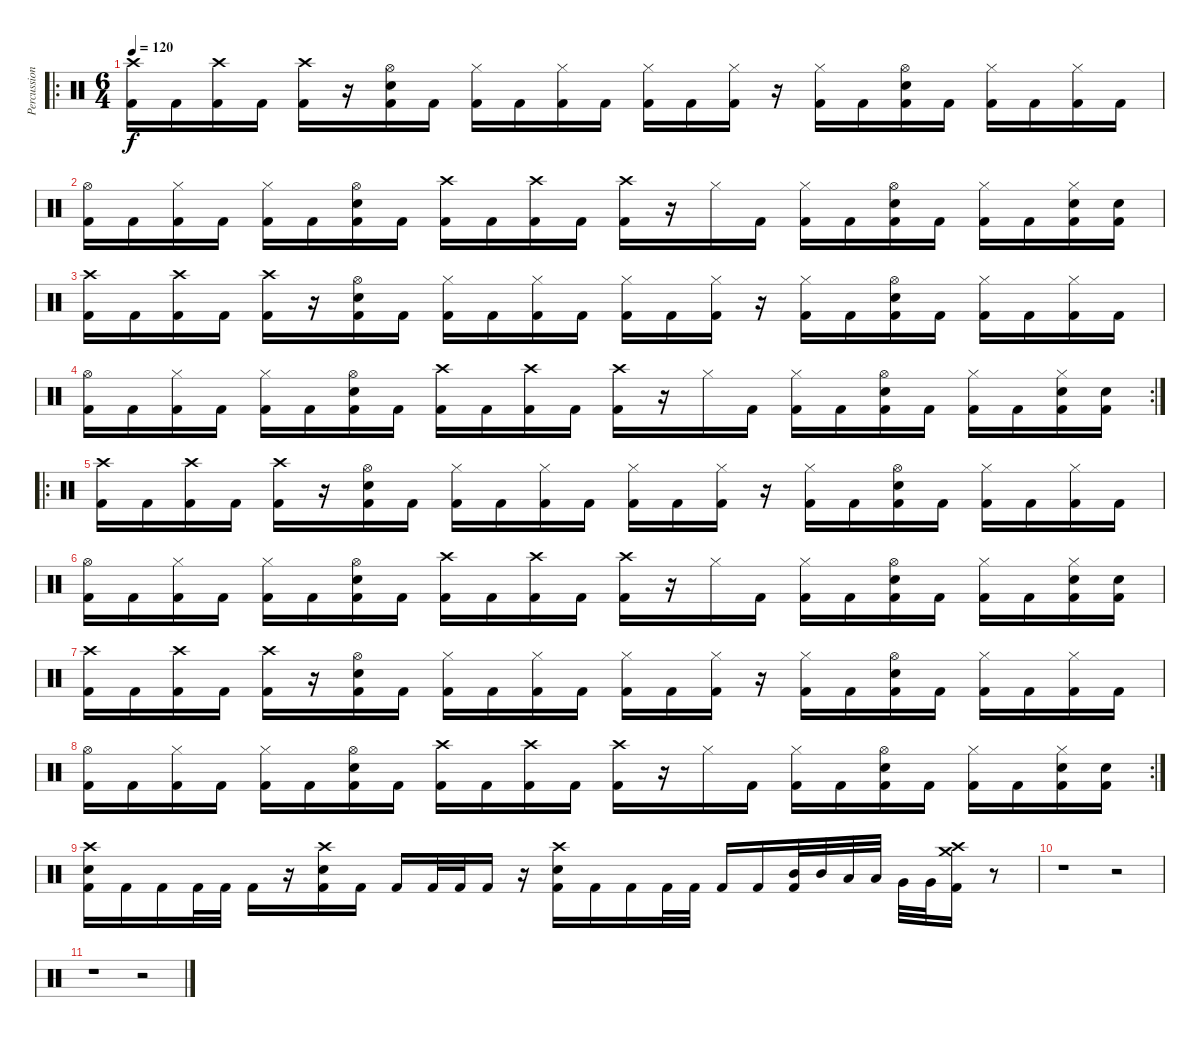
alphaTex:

\track ("Percussion" "Percussion") {instrument percussion}
\staff {score}
\articulation defaults
\ro
\ts (6 4)
\tempo 120
\clef neutral
\ks c
("Crash high (hit)" "Kick (hit) 2").16{dy f} "Kick (hit) 2".16 ("Crash high (hit)" "Kick (hit) 2").16 "Kick (hit) 2".16 ("Crash high (hit)" "Kick (hit) 2").16 r.16 ("Hi-Hat (open)" "Snare (hit) 2" "Kick (hit) 2").16 "Kick (hit) 2".16 ("Hi-Hat (closed)" "Kick (hit) 2").16 "Kick (hit) 2".16 ("Hi-Hat (closed)" "Kick (hit) 2").16 "Kick (hit) 2".16 ("Hi-Hat (closed)" "Kick (hit) 2").16 "Kick (hit) 2".16 ("Hi-Hat (closed)" "Kick (hit) 2").16 r.16 ("Hi-Hat (closed)" "Kick (hit) 2").16 "Kick (hit) 2".16 ("Hi-Hat (open)" "Snare (hit) 2" "Kick (hit) 2").16 "Kick (hit) 2".16 ("Hi-Hat (closed)" "Kick (hit) 2").16 "Kick (hit) 2".16 ("Hi-Hat (closed)" "Kick (hit) 2").16 "Kick (hit) 2".16 |
("Hi-Hat (open)" "Kick (hit) 2").16 "Kick (hit) 2".16 ("Hi-Hat (closed)" "Kick (hit) 2").16 "Kick (hit) 2".16 ("Hi-Hat (closed)" "Kick (hit) 2").16 "Kick (hit) 2".16 ("Hi-Hat (open)" "Snare (hit) 2" "Kick (hit) 2").16 "Kick (hit) 2".16 ("Crash high (hit)" "Kick (hit) 2").16 "Kick (hit) 2".16 ("Crash high (hit)" "Kick (hit) 2").16 "Kick (hit) 2".16 ("Crash high (hit)" "Kick (hit) 2").16 r.16 "Hi-Hat (closed)".16 "Kick (hit) 2".16 ("Hi-Hat (closed)" "Kick (hit) 2").16 "Kick (hit) 2".16 ("Hi-Hat (open)" "Snare (hit) 2" "Kick (hit) 2").16 "Kick (hit) 2".16 ("Hi-Hat (closed)" "Kick (hit) 2").16 "Kick (hit) 2".16 ("Hi-Hat (closed)" "Snare (hit) 2" "Kick (hit) 2").16 ("Snare (hit) 2" "Kick (hit) 2").16 |
("Crash high (hit)" "Kick (hit) 2").16 "Kick (hit) 2".16 ("Crash high (hit)" "Kick (hit) 2").16 "Kick (hit) 2".16 ("Crash high (hit)" "Kick (hit) 2").16 r.16 ("Hi-Hat (open)" "Snare (hit) 2" "Kick (hit) 2").16 "Kick (hit) 2".16 ("Hi-Hat (closed)" "Kick (hit) 2").16 "Kick (hit) 2".16 ("Hi-Hat (closed)" "Kick (hit) 2").16 "Kick (hit) 2".16 ("Hi-Hat (closed)" "Kick (hit) 2").16 "Kick (hit) 2".16 ("Hi-Hat (closed)" "Kick (hit) 2").16 r.16 ("Hi-Hat (closed)" "Kick (hit) 2").16 "Kick (hit) 2".16 ("Hi-Hat (open)" "Snare (hit) 2" "Kick (hit) 2").16 "Kick (hit) 2".16 ("Hi-Hat (closed)" "Kick (hit) 2").16 "Kick (hit) 2".16 ("Hi-Hat (closed)" "Kick (hit) 2").16 "Kick (hit) 2".16 |
\rc 2
("Hi-Hat (open)" "Kick (hit) 2").16 "Kick (hit) 2".16 ("Hi-Hat (closed)" "Kick (hit) 2").16 "Kick (hit) 2".16 ("Hi-Hat (closed)" "Kick (hit) 2").16 "Kick (hit) 2".16 ("Hi-Hat (open)" "Snare (hit) 2" "Kick (hit) 2").16 "Kick (hit) 2".16 ("Crash high (hit)" "Kick (hit) 2").16 "Kick (hit) 2".16 ("Crash high (hit)" "Kick (hit) 2").16 "Kick (hit) 2".16 ("Crash high (hit)" "Kick (hit) 2").16 r.16 "Hi-Hat (closed)".16 "Kick (hit) 2".16 ("Hi-Hat (closed)" "Kick (hit) 2").16 "Kick (hit) 2".16 ("Hi-Hat (open)" "Snare (hit) 2" "Kick (hit) 2").16 "Kick (hit) 2".16 ("Hi-Hat (closed)" "Kick (hit) 2").16 "Kick (hit) 2".16 ("Hi-Hat (closed)" "Snare (hit) 2" "Kick (hit) 2").16 ("Snare (hit) 2" "Kick (hit) 2").16 |
\ro
("Crash high (hit)" "Kick (hit) 2").16 "Kick (hit) 2".16 ("Crash high (hit)" "Kick (hit) 2").16 "Kick (hit) 2".16 ("Crash high (hit)" "Kick (hit) 2").16 r.16 ("Hi-Hat (open)" "Snare (hit) 2" "Kick (hit) 2").16 "Kick (hit) 2".16 ("Hi-Hat (closed)" "Kick (hit) 2").16 "Kick (hit) 2".16 ("Hi-Hat (closed)" "Kick (hit) 2").16 "Kick (hit) 2".16 ("Hi-Hat (closed)" "Kick (hit) 2").16 "Kick (hit) 2".16 ("Hi-Hat (closed)" "Kick (hit) 2").16 r.16 ("Hi-Hat (closed)" "Kick (hit) 2").16 "Kick (hit) 2".16 ("Hi-Hat (open)" "Snare (hit) 2" "Kick (hit) 2").16 "Kick (hit) 2".16 ("Hi-Hat (closed)" "Kick (hit) 2").16 "Kick (hit) 2".16 ("Hi-Hat (closed)" "Kick (hit) 2").16 "Kick (hit) 2".16 |
("Hi-Hat (open)" "Kick (hit) 2").16 "Kick (hit) 2".16 ("Hi-Hat (closed)" "Kick (hit) 2").16 "Kick (hit) 2".16 ("Hi-Hat (closed)" "Kick (hit) 2").16 "Kick (hit) 2".16 ("Hi-Hat (open)" "Snare (hit) 2" "Kick (hit) 2").16 "Kick (hit) 2".16 ("Crash high (hit)" "Kick (hit) 2").16 "Kick (hit) 2".16 ("Crash high (hit)" "Kick (hit) 2").16 "Kick (hit) 2".16 ("Crash high (hit)" "Kick (hit) 2").16 r.16 "Hi-Hat (closed)".16 "Kick (hit) 2".16 ("Hi-Hat (closed)" "Kick (hit) 2").16 "Kick (hit) 2".16 ("Hi-Hat (open)" "Snare (hit) 2" "Kick (hit) 2").16 "Kick (hit) 2".16 ("Hi-Hat (closed)" "Kick (hit) 2").16 "Kick (hit) 2".16 ("Hi-Hat (closed)" "Snare (hit) 2" "Kick (hit) 2").16 ("Snare (hit) 2" "Kick (hit) 2").16 |
("Crash high (hit)" "Kick (hit) 2").16 "Kick (hit) 2".16 ("Crash high (hit)" "Kick (hit) 2").16 "Kick (hit) 2".16 ("Crash high (hit)" "Kick (hit) 2").16 r.16 ("Hi-Hat (open)" "Snare (hit) 2" "Kick (hit) 2").16 "Kick (hit) 2".16 ("Hi-Hat (closed)" "Kick (hit) 2").16 "Kick (hit) 2".16 ("Hi-Hat (closed)" "Kick (hit) 2").16 "Kick (hit) 2".16 ("Hi-Hat (closed)" "Kick (hit) 2").16 "Kick (hit) 2".16 ("Hi-Hat (closed)" "Kick (hit) 2").16 r.16 ("Hi-Hat (closed)" "Kick (hit) 2").16 "Kick (hit) 2".16 ("Hi-Hat (open)" "Snare (hit) 2" "Kick (hit) 2").16 "Kick (hit) 2".16 ("Hi-Hat (closed)" "Kick (hit) 2").16 "Kick (hit) 2".16 ("Hi-Hat (closed)" "Kick (hit) 2").16 "Kick (hit) 2".16 |
\rc 2
("Hi-Hat (open)" "Kick (hit) 2").16 "Kick (hit) 2".16 ("Hi-Hat (closed)" "Kick (hit) 2").16 "Kick (hit) 2".16 ("Hi-Hat (closed)" "Kick (hit) 2").16 "Kick (hit) 2".16 ("Hi-Hat (open)" "Snare (hit) 2" "Kick (hit) 2").16 "Kick (hit) 2".16 ("Crash high (hit)" "Kick (hit) 2").16 "Kick (hit) 2".16 ("Crash high (hit)" "Kick (hit) 2").16 "Kick (hit) 2".16 ("Crash high (hit)" "Kick (hit) 2").16 r.16 "Hi-Hat (closed)".16 "Kick (hit) 2".16 ("Hi-Hat (closed)" "Kick (hit) 2").16 "Kick (hit) 2".16 ("Hi-Hat (open)" "Snare (hit) 2" "Kick (hit) 2").16 "Kick (hit) 2".16 ("Hi-Hat (closed)" "Kick (hit) 2").16 "Kick (hit) 2".16 ("Hi-Hat (closed)" "Snare (hit) 2" "Kick (hit) 2").16 ("Snare (hit) 2" "Kick (hit) 2").16 |
("Crash high (hit)" "Snare (hit) 2" "Kick (hit) 2").16 "Kick (hit) 2".16 "Kick (hit) 2".16 "Kick (hit) 2".32 "Kick (hit) 2".32 "Kick (hit) 2".16 r.16 ("Crash high (hit)" "Snare (hit) 2" "Kick (hit) 2").16 "Kick (hit) 2".16 "Kick (hit) 2".16 "Kick (hit) 2".32 "Kick (hit) 2".32 "Kick (hit) 2".16 r.16 ("Crash high (hit)" "Snare (hit) 2" "Kick (hit) 2").16 "Kick (hit) 2".16 "Kick (hit) 2".16 "Kick (hit) 2".32 "Kick (hit) 2".32 "Kick (hit) 2".16 "Kick (hit) 2".16 ("Mid Tom (hit)" "Kick (hit) 2").32 "Mid Tom (hit)".32 "Low Tom (hit)".32 "Low Tom (hit)".32 "Very Low Tom (hit)".32 "Very Low Tom (hit)".32 ("Crash high (hit)" "Crash medium (hit)" "Kick (hit) 2").16 r.8 |
r.1 r.2 |
r.1 r.2
